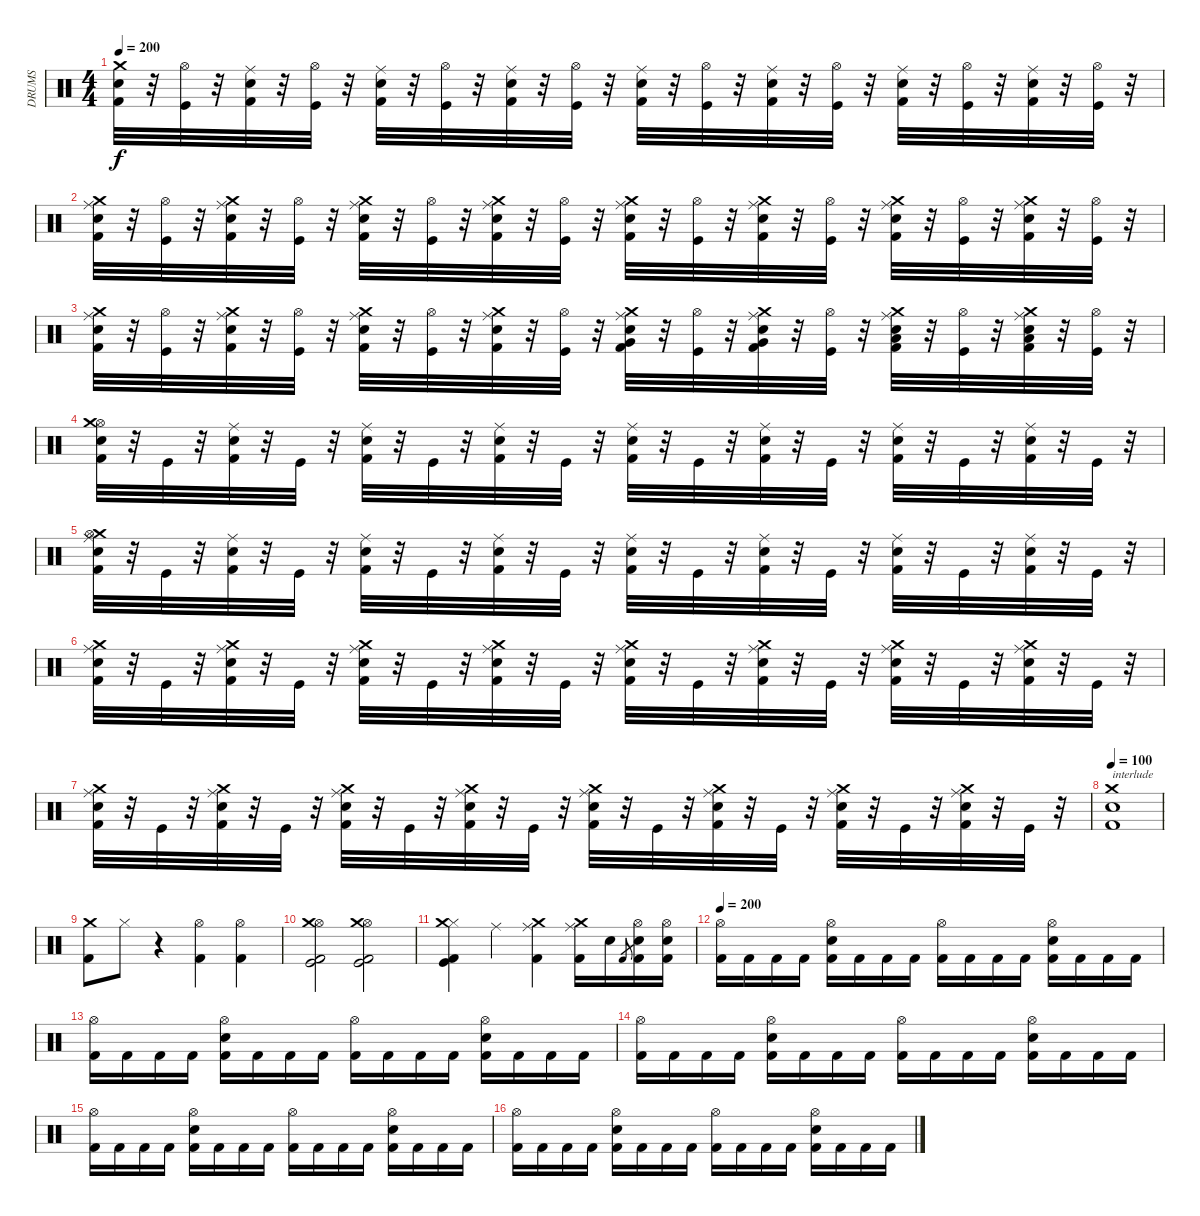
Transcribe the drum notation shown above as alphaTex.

\track ("DRUMS" "DRUMS") {instrument percussion}
\staff {score}
\articulation defaults
\ts (4 4)
\tempo 200
\clef neutral
\ks c
("Crash medium (hit)" "Snare (hit) 2" "Kick (hit) 2").32{dy f} r.32 ("Kick (hit)" "Hi-Hat (open)").32 r.32 ("Snare (hit) 2" "Ride (middle)" "Kick (hit) 2").32 r.32 ("Kick (hit)" "Hi-Hat (open)").32 r.32 ("Snare (hit) 2" "Ride (middle)" "Kick (hit) 2").32 r.32 ("Kick (hit)" "Hi-Hat (open)").32 r.32 ("Snare (hit) 2" "Kick (hit) 2" "Ride (middle)").32 r.32 ("Kick (hit)" "Hi-Hat (open)").32 r.32 ("Ride (middle)" "Snare (hit) 2" "Kick (hit) 2").32 r.32 ("Kick (hit)" "Hi-Hat (open)").32 r.32 ("Ride (middle)" "Snare (hit) 2" "Kick (hit) 2").32 r.32 ("Kick (hit)" "Hi-Hat (open)").32 r.32 ("Ride (middle)" "Snare (hit) 2" "Kick (hit) 2").32 r.32 ("Kick (hit)" "Hi-Hat (open)").32 r.32 ("Ride (middle)" "Kick (hit) 2" "Snare (hit) 2").32 r.32 ("Hi-Hat (open)" "Kick (hit)").32 r.32 |
("Crash medium (hit)" "Snare (hit) 2" "Kick (hit) 2" "Ride (middle)").32 r.32 ("Kick (hit)" "Hi-Hat (open)").32 r.32 ("Kick (hit) 2" "Snare (hit) 2" "Crash medium (hit)" "Ride (middle)").32 r.32 ("Hi-Hat (open)" "Kick (hit)").32 r.32 ("Snare (hit) 2" "Crash medium (hit)" "Kick (hit) 2" "Ride (middle)").32 r.32 ("Kick (hit)" "Hi-Hat (open)").32 r.32 ("Crash medium (hit)" "Kick (hit) 2" "Ride (middle)" "Snare (hit) 2").32 r.32 ("Hi-Hat (open)" "Kick (hit)").32 r.32 ("Ride (middle)" "Kick (hit) 2" "Snare (hit) 2" "Crash medium (hit)").32 r.32 ("Kick (hit)" "Hi-Hat (open)").32 r.32 ("Kick (hit) 2" "Crash medium (hit)" "Snare (hit) 2" "Ride (middle)").32 r.32 ("Hi-Hat (open)" "Kick (hit)").32 r.32 ("Ride (middle)" "Snare (hit) 2" "Crash medium (hit)" "Kick (hit) 2").32 r.32 ("Kick (hit)" "Hi-Hat (open)").32 r.32 ("Crash medium (hit)" "Snare (hit) 2" "Ride (middle)" "Kick (hit) 2").32 r.32 ("Hi-Hat (open)" "Kick (hit)").32 r.32 |
("Crash medium (hit)" "Ride (middle)" "Kick (hit) 2" "Snare (hit) 2").32 r.32 ("Kick (hit)" "Hi-Hat (open)").32 r.32 ("Snare (hit) 2" "Kick (hit) 2" "Crash medium (hit)" "Ride (middle)").32 r.32 ("Kick (hit)" "Hi-Hat (open)").32 r.32 ("Ride (middle)" "Crash medium (hit)" "Kick (hit) 2" "Snare (hit) 2").32 r.32 ("Kick (hit)" "Hi-Hat (open)").32 r.32 ("Ride (middle)" "Snare (hit) 2" "Crash medium (hit)" "Kick (hit) 2").32 r.32 ("Kick (hit)" "Hi-Hat (open)").32 r.32 ("Electric Snare (hit)" "Very Low Tom (hit)" "Kick (hit) 2" "Crash medium (hit)" "Ride (middle)").32 r.32 ("Hi-Hat (open)" "Kick (hit)").32 r.32 ("Electric Snare (hit)" "Kick (hit) 2" "Crash medium (hit)" "Ride (middle)" "Very Low Tom (hit)").32 r.32 ("Kick (hit)" "Hi-Hat (open)").32 r.32 ("Snare (hit) 2" "Ride (middle)" "Kick (hit) 2" "Crash medium (hit)" "Low Floor Tom (hit)").32 r.32 ("Hi-Hat (open)" "Kick (hit)").32 r.32 ("Crash medium (hit)" "Snare (hit) 2" "Low Floor Tom (hit)" "Kick (hit) 2" "Ride (middle)").32 r.32 ("Kick (hit)" "Hi-Hat (open)").32 r.32 |
("Hi-Hat (open)" "Kick (hit) 2" "Crash medium (hit)" "Snare (hit) 2").32 r.32 "Kick (hit)".32 r.32 ("Ride (middle)" "Kick (hit) 2" "Snare (hit) 2").32 r.32 "Kick (hit)".32 r.32 ("Ride (middle)" "Snare (hit) 2" "Kick (hit) 2").32 r.32 "Kick (hit)".32 r.32 ("Ride (middle)" "Snare (hit) 2" "Kick (hit) 2").32 r.32 "Kick (hit)".32 r.32 ("Kick (hit) 2" "Ride (middle)" "Snare (hit) 2").32 r.32 "Kick (hit)".32 r.32 ("Snare (hit) 2" "Ride (middle)" "Kick (hit) 2").32 r.32 "Kick (hit)".32 r.32 ("Snare (hit) 2" "Kick (hit) 2" "Ride (middle)").32 r.32 "Kick (hit)".32 r.32 ("Kick (hit) 2" "Snare (hit) 2" "Ride (middle)").32 r.32 "Kick (hit)".32 r.32 |
("Crash medium (hit)" "Snare (hit) 2" "Ride (middle)" "Hi-Hat (open)" "Kick (hit) 2").32 r.32 "Kick (hit)".32 r.32 ("Snare (hit) 2" "Kick (hit) 2" "Ride (middle)").32 r.32 "Kick (hit)".32 r.32 ("Snare (hit) 2" "Kick (hit) 2" "Ride (middle)").32 r.32 "Kick (hit)".32 r.32 ("Ride (middle)" "Snare (hit) 2" "Kick (hit) 2").32 r.32 "Kick (hit)".32 r.32 ("Kick (hit) 2" "Snare (hit) 2" "Ride (middle)").32 r.32 "Kick (hit)".32 r.32 ("Kick (hit) 2" "Snare (hit) 2" "Ride (middle)").32 r.32 "Kick (hit)".32 r.32 ("Snare (hit) 2" "Kick (hit) 2" "Ride (middle)").32 r.32 "Kick (hit)".32 r.32 ("Kick (hit) 2" "Ride (middle)" "Snare (hit) 2").32 r.32 "Kick (hit)".32 r.32 |
("Snare (hit) 2" "Ride (middle)" "Kick (hit) 2" "Crash medium (hit)").32 r.32 "Kick (hit)".32 r.32 ("Crash medium (hit)" "Snare (hit) 2" "Ride (middle)" "Kick (hit) 2").32 r.32 "Kick (hit)".32 r.32 ("Kick (hit) 2" "Snare (hit) 2" "Ride (middle)" "Crash medium (hit)").32 r.32 "Kick (hit)".32 r.32 ("Ride (middle)" "Snare (hit) 2" "Crash medium (hit)" "Kick (hit) 2").32 r.32 "Kick (hit)".32 r.32 ("Ride (middle)" "Kick (hit) 2" "Crash medium (hit)" "Snare (hit) 2").32 r.32 "Kick (hit)".32 r.32 ("Crash medium (hit)" "Kick (hit) 2" "Ride (middle)" "Snare (hit) 2").32 r.32 "Kick (hit)".32 r.32 ("Crash medium (hit)" "Snare (hit) 2" "Ride (middle)" "Kick (hit) 2").32 r.32 "Kick (hit)".32 r.32 ("Kick (hit) 2" "Crash medium (hit)" "Snare (hit) 2" "Ride (middle)").32 r.32 "Kick (hit)".32 r.32 |
("Snare (hit) 2" "Ride (middle)" "Kick (hit) 2" "Crash medium (hit)").32 r.32 "Kick (hit)".32 r.32 ("Crash medium (hit)" "Snare (hit) 2" "Ride (middle)" "Kick (hit) 2").32 r.32 "Kick (hit)".32 r.32 ("Kick (hit) 2" "Snare (hit) 2" "Ride (middle)" "Crash medium (hit)").32 r.32 "Kick (hit)".32 r.32 ("Ride (middle)" "Snare (hit) 2" "Crash medium (hit)" "Kick (hit) 2").32 r.32 "Kick (hit)".32 r.32 ("Ride (middle)" "Kick (hit) 2" "Crash medium (hit)" "Snare (hit) 2").32 r.32 "Kick (hit)".32 r.32 ("Crash medium (hit)" "Kick (hit) 2" "Ride (middle)" "Snare (hit) 2").32 r.32 "Kick (hit)".32 r.32 ("Crash medium (hit)" "Snare (hit) 2" "Ride (middle)" "Kick (hit) 2").32 r.32 "Kick (hit)".32 r.32 ("Kick (hit) 2" "Crash medium (hit)" "Snare (hit) 2" "Ride (middle)").32 r.32 "Kick (hit)".32 r.32 |
\tempo 100
("Snare (hit) 2" "Crash medium (hit)" "Kick (hit) 2").1{txt "interlude"} |
("Crash medium (hit)" "Kick (hit) 2").8 "Hi-Hat (closed)".8 r.4 ("Hi-Hat (open)" "Kick (hit) 2").4 ("Hi-Hat (open)" "Kick (hit) 2").4 |
("Kick (hit) 2" "Kick (hit)" "Hi-Hat (open)" "Crash medium (hit)").2 ("Kick (hit) 2" "Kick (hit)" "Hi-Hat (open)" "Crash medium (hit)").2 |
("Kick (hit) 2" "Kick (hit)" "Hi-Hat (closed)" "Crash medium (hit)").4 "Ride (middle)".4 ("Kick (hit) 2" "Ride (middle)" "Crash medium (hit)").4 ("Kick (hit) 2" "Ride (middle)" "Crash medium (hit)").16 "Snare (hit)"{x}.16 "Kick (hit) 2".8{gr} ("Snare (hit) 2" "Hi-Hat (open)" "Kick (hit) 2").16 ("Snare (hit) 2" "Hi-Hat (open)" "Kick (hit) 2").16 |
\tempo 200
("Kick (hit) 2" "Hi-Hat (open)").16 "Kick (hit) 2".16 "Kick (hit) 2".16 "Kick (hit) 2".16 ("Kick (hit) 2" "Snare (hit) 2" "Hi-Hat (open)").16 "Kick (hit) 2".16 "Kick (hit) 2".16 "Kick (hit) 2".16 ("Kick (hit) 2" "Hi-Hat (open)").16 "Kick (hit) 2".16 "Kick (hit) 2".16 "Kick (hit) 2".16 ("Kick (hit) 2" "Snare (hit) 2" "Hi-Hat (open)").16 "Kick (hit) 2".16 "Kick (hit) 2".16 "Kick (hit) 2".16 |
("Kick (hit) 2" "Hi-Hat (open)").16 "Kick (hit) 2".16 "Kick (hit) 2".16 "Kick (hit) 2".16 ("Kick (hit) 2" "Snare (hit) 2" "Hi-Hat (open)").16 "Kick (hit) 2".16 "Kick (hit) 2".16 "Kick (hit) 2".16 ("Kick (hit) 2" "Hi-Hat (open)").16 "Kick (hit) 2".16 "Kick (hit) 2".16 "Kick (hit) 2".16 ("Kick (hit) 2" "Snare (hit) 2" "Hi-Hat (open)").16 "Kick (hit) 2".16 "Kick (hit) 2".16 "Kick (hit) 2".16 |
("Kick (hit) 2" "Hi-Hat (open)").16 "Kick (hit) 2".16 "Kick (hit) 2".16 "Kick (hit) 2".16 ("Kick (hit) 2" "Snare (hit) 2" "Hi-Hat (open)").16 "Kick (hit) 2".16 "Kick (hit) 2".16 "Kick (hit) 2".16 ("Kick (hit) 2" "Hi-Hat (open)").16 "Kick (hit) 2".16 "Kick (hit) 2".16 "Kick (hit) 2".16 ("Kick (hit) 2" "Snare (hit) 2" "Hi-Hat (open)").16 "Kick (hit) 2".16 "Kick (hit) 2".16 "Kick (hit) 2".16 |
("Kick (hit) 2" "Hi-Hat (open)").16 "Kick (hit) 2".16 "Kick (hit) 2".16 "Kick (hit) 2".16 ("Kick (hit) 2" "Snare (hit) 2" "Hi-Hat (open)").16 "Kick (hit) 2".16 "Kick (hit) 2".16 "Kick (hit) 2".16 ("Kick (hit) 2" "Hi-Hat (open)").16 "Kick (hit) 2".16 "Kick (hit) 2".16 "Kick (hit) 2".16 ("Kick (hit) 2" "Snare (hit) 2" "Hi-Hat (open)").16 "Kick (hit) 2".16 "Kick (hit) 2".16 "Kick (hit) 2".16 |
("Kick (hit) 2" "Hi-Hat (open)").16 "Kick (hit) 2".16 "Kick (hit) 2".16 "Kick (hit) 2".16 ("Kick (hit) 2" "Snare (hit) 2" "Hi-Hat (open)").16 "Kick (hit) 2".16 "Kick (hit) 2".16 "Kick (hit) 2".16 ("Kick (hit) 2" "Hi-Hat (open)").16 "Kick (hit) 2".16 "Kick (hit) 2".16 "Kick (hit) 2".16 ("Kick (hit) 2" "Snare (hit) 2" "Hi-Hat (open)").16 "Kick (hit) 2".16 "Kick (hit) 2".16 "Kick (hit) 2".16
